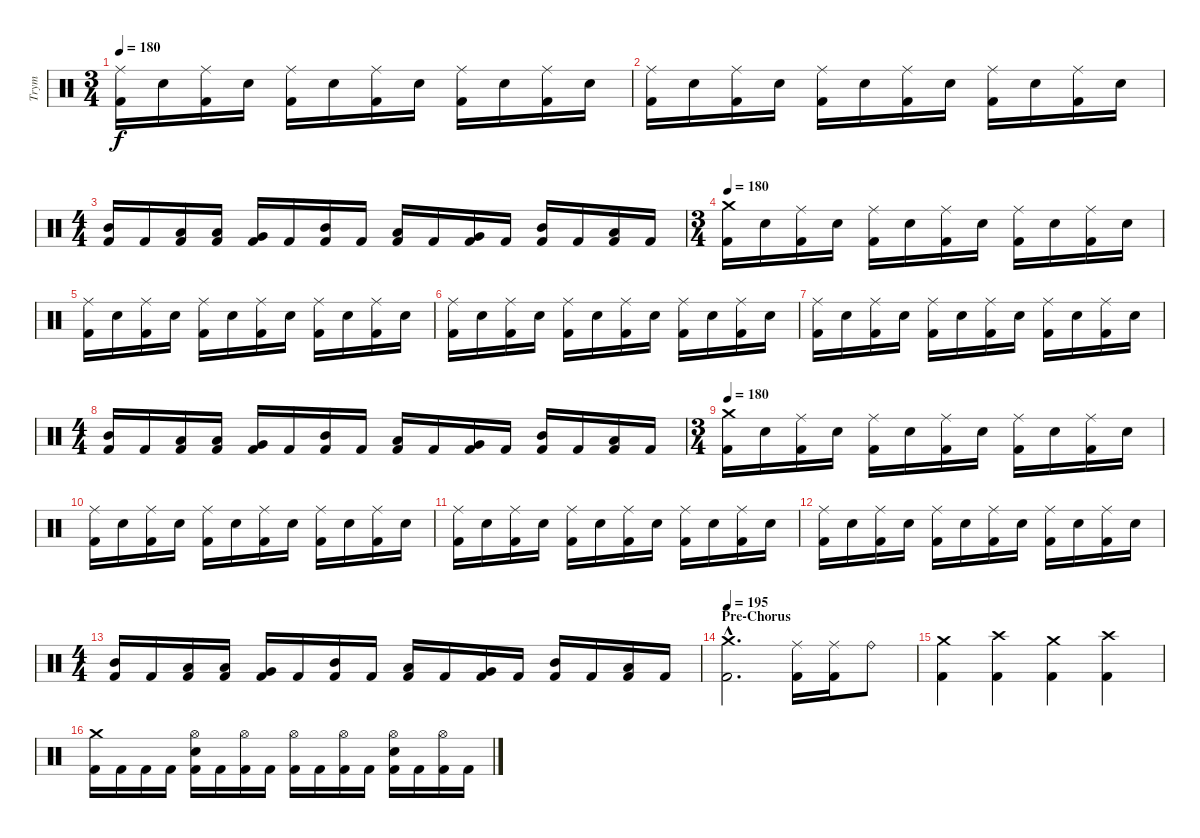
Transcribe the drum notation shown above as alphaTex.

\track ("Trym" "Trym") {instrument percussion}
\staff {score}
\articulation defaults
\ts (3 4)
\tempo 180
\clef neutral
\ks c
("Kick (hit) 2" "Ride (middle)").16{dy f} "Electric Snare (hit)".16 ("Kick (hit) 2" "Ride (middle)").16 "Electric Snare (hit)".16 ("Kick (hit) 2" "Ride (middle)").16 "Electric Snare (hit)".16 ("Kick (hit) 2" "Ride (middle)").16 "Electric Snare (hit)".16 ("Kick (hit) 2" "Ride (middle)").16 "Electric Snare (hit)".16 ("Kick (hit) 2" "Ride (middle)").16 "Electric Snare (hit)".16 |
("Kick (hit) 2" "Ride (middle)").16 "Electric Snare (hit)".16 ("Kick (hit) 2" "Ride (middle)").16 "Electric Snare (hit)".16 ("Kick (hit) 2" "Ride (middle)").16 "Electric Snare (hit)".16 ("Kick (hit) 2" "Ride (middle)").16 "Electric Snare (hit)".16 ("Kick (hit) 2" "Ride (middle)").16 "Electric Snare (hit)".16 ("Kick (hit) 2" "Ride (middle)").16 "Electric Snare (hit)".16 |
\ts (4 4)
("Kick (hit) 2" "Mid Tom (hit)").16 "Kick (hit) 2".16 ("Kick (hit) 2" "Low Tom (hit)").16 ("Kick (hit) 2" "Low Tom (hit)").16 ("Kick (hit) 2" "Very Low Tom (hit)").16 "Kick (hit) 2".16 ("Kick (hit) 2" "Mid Tom (hit)").16 "Kick (hit) 2".16 ("Kick (hit) 2" "Low Tom (hit)").16 "Kick (hit) 2".16 ("Kick (hit) 2" "Very Low Tom (hit)").16 "Kick (hit) 2".16 ("Kick (hit) 2" "Mid Tom (hit)").16 "Kick (hit) 2".16 ("Kick (hit) 2" "Low Tom (hit)").16 "Kick (hit) 2".16 |
\ts (3 4)
\tempo 180
("Kick (hit) 2" "Crash medium (hit)").16 "Electric Snare (hit)".16 ("Kick (hit) 2" "Ride (middle)").16 "Electric Snare (hit)".16 ("Kick (hit) 2" "Ride (middle)").16 "Electric Snare (hit)".16 ("Kick (hit) 2" "Ride (middle)").16 "Electric Snare (hit)".16 ("Kick (hit) 2" "Ride (middle)").16 "Electric Snare (hit)".16 ("Kick (hit) 2" "Ride (middle)").16 "Electric Snare (hit)".16 |
("Kick (hit) 2" "Ride (middle)").16 "Electric Snare (hit)".16 ("Kick (hit) 2" "Ride (middle)").16 "Electric Snare (hit)".16 ("Kick (hit) 2" "Ride (middle)").16 "Electric Snare (hit)".16 ("Kick (hit) 2" "Ride (middle)").16 "Electric Snare (hit)".16 ("Kick (hit) 2" "Ride (middle)").16 "Electric Snare (hit)".16 ("Kick (hit) 2" "Ride (middle)").16 "Electric Snare (hit)".16 |
("Kick (hit) 2" "Ride (middle)").16 "Electric Snare (hit)".16 ("Kick (hit) 2" "Ride (middle)").16 "Electric Snare (hit)".16 ("Kick (hit) 2" "Ride (middle)").16 "Electric Snare (hit)".16 ("Kick (hit) 2" "Ride (middle)").16 "Electric Snare (hit)".16 ("Kick (hit) 2" "Ride (middle)").16 "Electric Snare (hit)".16 ("Kick (hit) 2" "Ride (middle)").16 "Electric Snare (hit)".16 |
("Kick (hit) 2" "Ride (middle)").16 "Electric Snare (hit)".16 ("Kick (hit) 2" "Ride (middle)").16 "Electric Snare (hit)".16 ("Kick (hit) 2" "Ride (middle)").16 "Electric Snare (hit)".16 ("Kick (hit) 2" "Ride (middle)").16 "Electric Snare (hit)".16 ("Kick (hit) 2" "Ride (middle)").16 "Electric Snare (hit)".16 ("Kick (hit) 2" "Ride (middle)").16 "Electric Snare (hit)".16 |
\ts (4 4)
("Kick (hit) 2" "Mid Tom (hit)").16 "Kick (hit) 2".16 ("Kick (hit) 2" "Low Tom (hit)").16 ("Kick (hit) 2" "Low Tom (hit)").16 ("Kick (hit) 2" "Very Low Tom (hit)").16 "Kick (hit) 2".16 ("Kick (hit) 2" "Mid Tom (hit)").16 "Kick (hit) 2".16 ("Kick (hit) 2" "Low Tom (hit)").16 "Kick (hit) 2".16 ("Kick (hit) 2" "Very Low Tom (hit)").16 "Kick (hit) 2".16 ("Kick (hit) 2" "Mid Tom (hit)").16 "Kick (hit) 2".16 ("Kick (hit) 2" "Low Tom (hit)").16 "Kick (hit) 2".16 |
\ts (3 4)
\tempo 180
("Kick (hit) 2" "Crash medium (hit)").16 "Electric Snare (hit)".16 ("Kick (hit) 2" "Ride (middle)").16 "Electric Snare (hit)".16 ("Kick (hit) 2" "Ride (middle)").16 "Electric Snare (hit)".16 ("Kick (hit) 2" "Ride (middle)").16 "Electric Snare (hit)".16 ("Kick (hit) 2" "Ride (middle)").16 "Electric Snare (hit)".16 ("Kick (hit) 2" "Ride (middle)").16 "Electric Snare (hit)".16 |
("Kick (hit) 2" "Ride (middle)").16 "Electric Snare (hit)".16 ("Kick (hit) 2" "Ride (middle)").16 "Electric Snare (hit)".16 ("Kick (hit) 2" "Ride (middle)").16 "Electric Snare (hit)".16 ("Kick (hit) 2" "Ride (middle)").16 "Electric Snare (hit)".16 ("Kick (hit) 2" "Ride (middle)").16 "Electric Snare (hit)".16 ("Kick (hit) 2" "Ride (middle)").16 "Electric Snare (hit)".16 |
("Kick (hit) 2" "Ride (middle)").16 "Electric Snare (hit)".16 ("Kick (hit) 2" "Ride (middle)").16 "Electric Snare (hit)".16 ("Kick (hit) 2" "Ride (middle)").16 "Electric Snare (hit)".16 ("Kick (hit) 2" "Ride (middle)").16 "Electric Snare (hit)".16 ("Kick (hit) 2" "Ride (middle)").16 "Electric Snare (hit)".16 ("Kick (hit) 2" "Ride (middle)").16 "Electric Snare (hit)".16 |
("Kick (hit) 2" "Ride (middle)").16 "Electric Snare (hit)".16 ("Kick (hit) 2" "Ride (middle)").16 "Electric Snare (hit)".16 ("Kick (hit) 2" "Ride (middle)").16 "Electric Snare (hit)".16 ("Kick (hit) 2" "Ride (middle)").16 "Electric Snare (hit)".16 ("Kick (hit) 2" "Ride (middle)").16 "Electric Snare (hit)".16 ("Kick (hit) 2" "Ride (middle)").16 "Electric Snare (hit)".16 |
\ts (4 4)
("Kick (hit) 2" "Mid Tom (hit)").16 "Kick (hit) 2".16 ("Kick (hit) 2" "Low Tom (hit)").16 ("Kick (hit) 2" "Low Tom (hit)").16 ("Kick (hit) 2" "Very Low Tom (hit)").16 "Kick (hit) 2".16 ("Kick (hit) 2" "Mid Tom (hit)").16 "Kick (hit) 2".16 ("Kick (hit) 2" "Low Tom (hit)").16 "Kick (hit) 2".16 ("Kick (hit) 2" "Very Low Tom (hit)").16 "Kick (hit) 2".16 ("Kick (hit) 2" "Mid Tom (hit)").16 "Kick (hit) 2".16 ("Kick (hit) 2" "Low Tom (hit)").16 "Kick (hit) 2".16 |
\section ("" "Pre-Chorus")
\tempo 195
("Kick (hit) 2"{hac} "Crash medium (hit)"{hac}).2{d} ("Ride (middle)" "Kick (hit) 2").16 ("Ride (middle)" "Kick (hit) 2").16 "Ride (bell)".8 |
("Crash medium (hit)" "Kick (hit) 2").4 ("Crash high (hit)" "Kick (hit) 2").4 ("Crash medium (hit)" "Kick (hit) 2").4 ("Crash high (hit)" "Kick (hit) 2").4 |
("Crash medium (hit)" "Kick (hit) 2").16 "Kick (hit) 2".16 "Kick (hit) 2".16 "Kick (hit) 2".16 ("Hi-Hat (open)" "Electric Snare (hit)" "Kick (hit) 2").16 "Kick (hit) 2".16 ("Hi-Hat (open)" "Kick (hit) 2").16 "Kick (hit) 2".16 ("Hi-Hat (open)" "Kick (hit) 2").16 "Kick (hit) 2".16 ("Hi-Hat (open)" "Kick (hit) 2").16 "Kick (hit) 2".16 ("Hi-Hat (open)" "Electric Snare (hit)" "Kick (hit) 2").16 "Kick (hit) 2".16 ("Hi-Hat (open)" "Kick (hit) 2").16 "Kick (hit) 2".16
